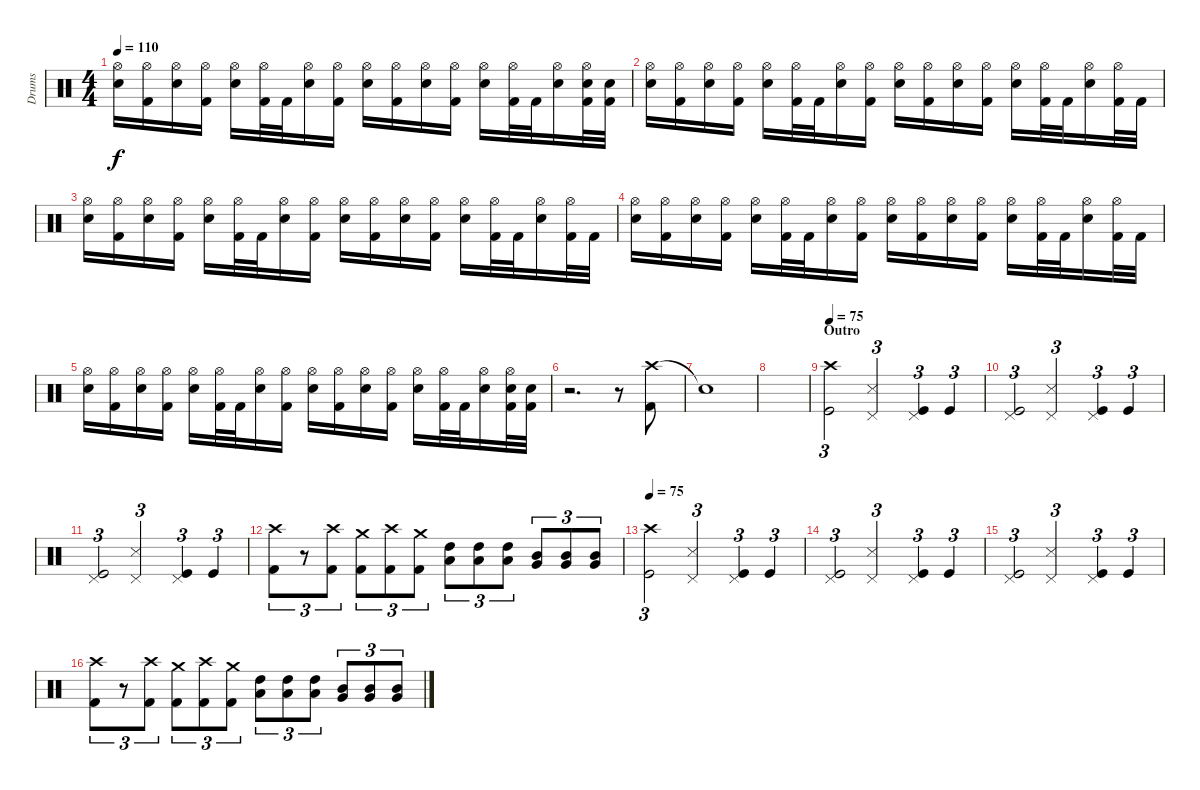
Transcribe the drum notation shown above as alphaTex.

\track ("Drums" "Drums") {instrument percussion}
\staff {score}
\articulation defaults
\ts (4 4)
\tempo 110
\clef neutral
\ks c
("Hi-Hat (open)" "Snare (hit) 2").16{dy f} ("Hi-Hat (open)" "Kick (hit) 2").16 ("Hi-Hat (open)" "Snare (hit) 2").16 ("Hi-Hat (open)" "Kick (hit) 2").16 ("Hi-Hat (open)" "Snare (hit) 2").16 ("Hi-Hat (open)" "Kick (hit) 2").32 "Kick (hit) 2".32 ("Hi-Hat (open)" "Snare (hit) 2").16 ("Hi-Hat (open)" "Kick (hit) 2").16 ("Hi-Hat (open)" "Snare (hit) 2").16 ("Hi-Hat (open)" "Kick (hit) 2").16 ("Hi-Hat (open)" "Snare (hit) 2").16 ("Hi-Hat (open)" "Kick (hit) 2").16 ("Hi-Hat (open)" "Snare (hit) 2").16 ("Hi-Hat (open)" "Kick (hit) 2").32 "Kick (hit) 2".32 ("Hi-Hat (open)" "Snare (hit) 2").16 ("Hi-Hat (open)" "Snare (hit) 2" "Kick (hit) 2").32 ("Snare (hit) 2" "Kick (hit) 2").32 |
("Hi-Hat (open)" "Snare (hit) 2").16 ("Hi-Hat (open)" "Kick (hit) 2").16 ("Hi-Hat (open)" "Snare (hit) 2").16 ("Hi-Hat (open)" "Kick (hit) 2").16 ("Hi-Hat (open)" "Snare (hit) 2").16 ("Hi-Hat (open)" "Kick (hit) 2").32 "Kick (hit) 2".32 ("Hi-Hat (open)" "Snare (hit) 2").16 ("Hi-Hat (open)" "Kick (hit) 2").16 ("Hi-Hat (open)" "Snare (hit) 2").16 ("Hi-Hat (open)" "Kick (hit) 2").16 ("Hi-Hat (open)" "Snare (hit) 2").16 ("Hi-Hat (open)" "Kick (hit) 2").16 ("Hi-Hat (open)" "Snare (hit) 2").16 ("Hi-Hat (open)" "Kick (hit) 2").32 "Kick (hit) 2".32 ("Hi-Hat (open)" "Snare (hit) 2").16 ("Hi-Hat (open)" "Kick (hit) 2").32 "Kick (hit) 2".32 |
("Hi-Hat (open)" "Snare (hit) 2").16 ("Hi-Hat (open)" "Kick (hit) 2").16 ("Hi-Hat (open)" "Snare (hit) 2").16 ("Hi-Hat (open)" "Kick (hit) 2").16 ("Hi-Hat (open)" "Snare (hit) 2").16 ("Hi-Hat (open)" "Kick (hit) 2").32 "Kick (hit) 2".32 ("Hi-Hat (open)" "Snare (hit) 2").16 ("Hi-Hat (open)" "Kick (hit) 2").16 ("Hi-Hat (open)" "Snare (hit) 2").16 ("Hi-Hat (open)" "Kick (hit) 2").16 ("Hi-Hat (open)" "Snare (hit) 2").16 ("Hi-Hat (open)" "Kick (hit) 2").16 ("Hi-Hat (open)" "Snare (hit) 2").16 ("Hi-Hat (open)" "Kick (hit) 2").32 "Kick (hit) 2".32 ("Hi-Hat (open)" "Snare (hit) 2").16 ("Hi-Hat (open)" "Kick (hit) 2").32 "Kick (hit) 2".32 |
("Hi-Hat (open)" "Snare (hit) 2").16 ("Hi-Hat (open)" "Kick (hit) 2").16 ("Hi-Hat (open)" "Snare (hit) 2").16 ("Hi-Hat (open)" "Kick (hit) 2").16 ("Hi-Hat (open)" "Snare (hit) 2").16 ("Hi-Hat (open)" "Kick (hit) 2").32 "Kick (hit) 2".32 ("Hi-Hat (open)" "Snare (hit) 2").16 ("Hi-Hat (open)" "Kick (hit) 2").16 ("Hi-Hat (open)" "Snare (hit) 2").16 ("Hi-Hat (open)" "Kick (hit) 2").16 ("Hi-Hat (open)" "Snare (hit) 2").16 ("Hi-Hat (open)" "Kick (hit) 2").16 ("Hi-Hat (open)" "Snare (hit) 2").16 ("Hi-Hat (open)" "Kick (hit) 2").32 "Kick (hit) 2".32 ("Hi-Hat (open)" "Snare (hit) 2").16 ("Hi-Hat (open)" "Kick (hit) 2").32 "Kick (hit) 2".32 |
("Hi-Hat (open)" "Snare (hit) 2").16 ("Hi-Hat (open)" "Kick (hit) 2").16 ("Hi-Hat (open)" "Snare (hit) 2").16 ("Hi-Hat (open)" "Kick (hit) 2").16 ("Hi-Hat (open)" "Snare (hit) 2").16 ("Hi-Hat (open)" "Kick (hit) 2").32 "Kick (hit) 2".32 ("Hi-Hat (open)" "Snare (hit) 2").16 ("Hi-Hat (open)" "Kick (hit) 2").16 ("Hi-Hat (open)" "Snare (hit) 2").16 ("Hi-Hat (open)" "Kick (hit) 2").16 ("Hi-Hat (open)" "Snare (hit) 2").16 ("Hi-Hat (open)" "Kick (hit) 2").16 ("Hi-Hat (open)" "Snare (hit) 2").16 ("Hi-Hat (open)" "Kick (hit) 2").32 "Kick (hit) 2".32 ("Hi-Hat (open)" "Snare (hit) 2").16 ("Hi-Hat (open)" "Snare (hit) 2" "Kick (hit) 2").32 ("Snare (hit) 2" "Kick (hit) 2").32 |
r.2{d} r.8 ("Crash high (hit)" "Kick (hit) 2").8 |
"Snare (hit)"{t}.1 |
|
\section ("" "Outro")
\tempo 75
("Crash high (hit)" "Kick (hit)").2{tu (3 2)} ("Pedal Hi-Hat (hit)" "Snare (side stick) 3").2{tu (3 2)} ("Pedal Hi-Hat (hit)" "Kick (hit)").4{tu (3 2)} "Kick (hit)".4{tu (3 2)} |
("Pedal Hi-Hat (hit)" "Kick (hit)").2{tu (3 2)} ("Pedal Hi-Hat (hit)" "Snare (side stick) 3").2{tu (3 2)} ("Pedal Hi-Hat (hit)" "Kick (hit)").4{tu (3 2)} "Kick (hit)".4{tu (3 2)} |
("Pedal Hi-Hat (hit)" "Kick (hit)").2{tu (3 2)} ("Pedal Hi-Hat (hit)" "Snare (side stick) 3").2{tu (3 2)} ("Pedal Hi-Hat (hit)" "Kick (hit)").4{tu (3 2)} "Kick (hit)".4{tu (3 2)} |
("Crash high (hit)" "Kick (hit) 2").8{tu (3 2)} r.8{tu (3 2)} ("Crash high (hit)" "Kick (hit) 2").8{tu (3 2)} ("Crash medium (hit)" "Kick (hit) 2").8{tu (3 2)} ("Crash high (hit)" "Kick (hit) 2").8{tu (3 2)} ("Crash medium (hit)" "Kick (hit) 2").8{tu (3 2)} ("High Tom (hit)" "Low Tom (hit)").8{tu (3 2)} ("High Tom (hit)" "Low Tom (hit)").8{tu (3 2)} ("High Tom (hit)" "Low Tom (hit)").8{tu (3 2)} ("Mid Tom (hit)" "Very Low Tom (hit)").8{tu (3 2)} ("Mid Tom (hit)" "Very Low Tom (hit)").8{tu (3 2)} ("Mid Tom (hit)" "Very Low Tom (hit)").8{tu (3 2)} |
\tempo 75
("Crash high (hit)" "Kick (hit)").2{tu (3 2)} ("Pedal Hi-Hat (hit)" "Snare (side stick) 3").2{tu (3 2)} ("Pedal Hi-Hat (hit)" "Kick (hit)").4{tu (3 2)} "Kick (hit)".4{tu (3 2)} |
("Pedal Hi-Hat (hit)" "Kick (hit)").2{tu (3 2)} ("Pedal Hi-Hat (hit)" "Snare (side stick) 3").2{tu (3 2)} ("Pedal Hi-Hat (hit)" "Kick (hit)").4{tu (3 2)} "Kick (hit)".4{tu (3 2)} |
("Pedal Hi-Hat (hit)" "Kick (hit)").2{tu (3 2)} ("Pedal Hi-Hat (hit)" "Snare (side stick) 3").2{tu (3 2)} ("Pedal Hi-Hat (hit)" "Kick (hit)").4{tu (3 2)} "Kick (hit)".4{tu (3 2)} |
("Crash high (hit)" "Kick (hit) 2").8{tu (3 2)} r.8{tu (3 2)} ("Crash high (hit)" "Kick (hit) 2").8{tu (3 2)} ("Crash medium (hit)" "Kick (hit) 2").8{tu (3 2)} ("Crash high (hit)" "Kick (hit) 2").8{tu (3 2)} ("Crash medium (hit)" "Kick (hit) 2").8{tu (3 2)} ("High Tom (hit)" "Low Tom (hit)").8{tu (3 2)} ("High Tom (hit)" "Low Tom (hit)").8{tu (3 2)} ("High Tom (hit)" "Low Tom (hit)").8{tu (3 2)} ("Mid Tom (hit)" "Very Low Tom (hit)").8{tu (3 2)} ("Mid Tom (hit)" "Very Low Tom (hit)").8{tu (3 2)} ("Mid Tom (hit)" "Very Low Tom (hit)").8{tu (3 2)}
